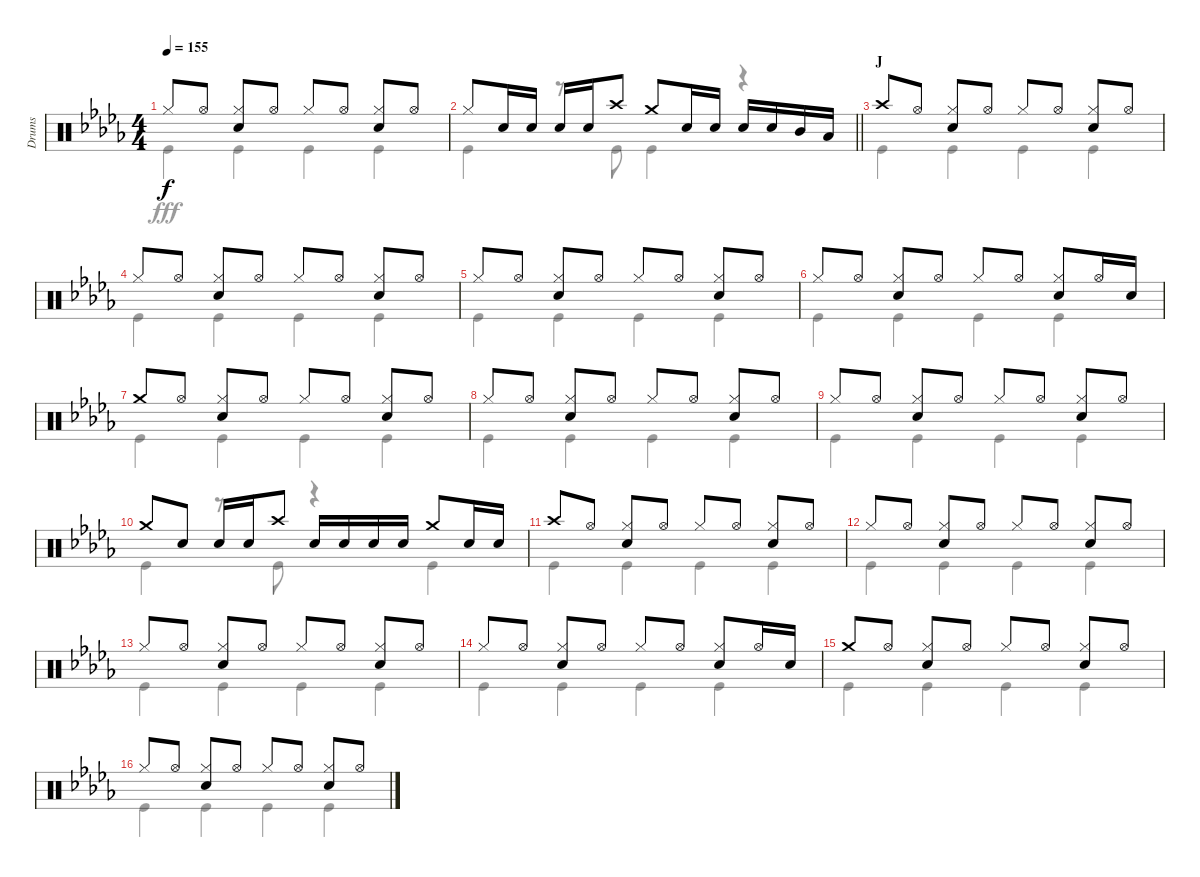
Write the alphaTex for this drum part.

\track ("Drums" "Drums") {instrument percussion}
\staff {score}
\articulation defaults
\voice
\ts (4 4)
\tempo 155
\clef neutral
\ks db "Hi-Hat (closed)".8{dy f} "Hi-Hat (open)".8
("Hi-Hat (closed)" "Snare (hit) 2").8 "Hi-Hat (open)".8 "Hi-Hat (closed)".8 "Hi-Hat (open)".8 ("Hi-Hat (closed)" "Snare (hit) 2").8 "Hi-Hat (open)".8 |
\barLineRight lightlight "Hi-Hat (closed)".8 "Snare (hit) 2".16 "Snare (hit) 2".16 "Snare (hit) 2".16 "Snare (hit) 2".16 "Crash high (hit)".8 "Crash medium (hit)".8 "Snare (hit) 2".16 "Snare (hit) 2".16 "Snare (hit) 2".16 "Snare (hit) 2".16 "Mid Tom (hit)".16 "Low Tom (hit)".16
|
\section ("" "J")
"Crash high (hit)".8 "Hi-Hat (open)".8 ("Hi-Hat (closed)" "Snare (hit) 2").8 "Hi-Hat (open)".8 "Hi-Hat (closed)".8 "Hi-Hat (open)".8 ("Hi-Hat (closed)" "Snare (hit) 2").8 "Hi-Hat (open)".8 |
"Hi-Hat (closed)".8 "Hi-Hat (open)".8 ("Hi-Hat (closed)" "Snare (hit) 2").8 "Hi-Hat (open)".8 "Hi-Hat (closed)".8 "Hi-Hat (open)".8 ("Hi-Hat (closed)" "Snare (hit) 2").8 "Hi-Hat (open)".8 |
"Hi-Hat (closed)".8 "Hi-Hat (open)".8 ("Hi-Hat (closed)" "Snare (hit) 2").8 "Hi-Hat (open)".8 "Hi-Hat (closed)".8 "Hi-Hat (open)".8 ("Hi-Hat (closed)" "Snare (hit) 2").8 "Hi-Hat (open)".8 |
"Hi-Hat (closed)".8 "Hi-Hat (open)".8 ("Hi-Hat (closed)" "Snare (hit) 2").8 "Hi-Hat (open)".8 "Hi-Hat (closed)".8 "Hi-Hat (open)".8 ("Hi-Hat (closed)" "Snare (hit) 2").8 "Hi-Hat (open)".16 "Snare (hit) 2".16 |
"Crash medium (hit)".8 "Hi-Hat (open)".8 ("Hi-Hat (closed)" "Snare (hit) 2").8 "Hi-Hat (open)".8 "Hi-Hat (closed)".8 "Hi-Hat (open)".8 ("Hi-Hat (closed)" "Snare (hit) 2").8 "Hi-Hat (open)".8 |
"Hi-Hat (closed)".8 "Hi-Hat (open)".8 ("Hi-Hat (closed)" "Snare (hit) 2").8 "Hi-Hat (open)".8 "Hi-Hat (closed)".8 "Hi-Hat (open)".8 ("Hi-Hat (closed)" "Snare (hit) 2").8 "Hi-Hat (open)".8 |
"Hi-Hat (closed)".8 "Hi-Hat (open)".8 ("Hi-Hat (closed)" "Snare (hit) 2").8 "Hi-Hat (open)".8 "Hi-Hat (closed)".8 "Hi-Hat (open)".8 ("Hi-Hat (closed)" "Snare (hit) 2").8 "Hi-Hat (open)".8 |
"Crash medium (hit)".8 "Snare (hit) 2".8 "Snare (hit) 2".16 "Snare (hit) 2".16 "Crash high (hit)".8 "Snare (hit) 2".16 "Snare (hit) 2".16 "Snare (hit) 2".16 "Snare (hit) 2".16 "Crash medium (hit)".8 "Snare (hit) 2".16 "Snare (hit) 2".16 |
"Crash high (hit)".8 "Hi-Hat (open)".8 ("Hi-Hat (closed)" "Snare (hit) 2").8 "Hi-Hat (open)".8 "Hi-Hat (closed)".8 "Hi-Hat (open)".8 ("Hi-Hat (closed)" "Snare (hit) 2").8 "Hi-Hat (open)".8 |
"Hi-Hat (closed)".8 "Hi-Hat (open)".8 ("Hi-Hat (closed)" "Snare (hit) 2").8 "Hi-Hat (open)".8 "Hi-Hat (closed)".8 "Hi-Hat (open)".8 ("Hi-Hat (closed)" "Snare (hit) 2").8 "Hi-Hat (open)".8 |
"Hi-Hat (closed)".8 "Hi-Hat (open)".8 ("Hi-Hat (closed)" "Snare (hit) 2").8 "Hi-Hat (open)".8 "Hi-Hat (closed)".8 "Hi-Hat (open)".8 ("Hi-Hat (closed)" "Snare (hit) 2").8 "Hi-Hat (open)".8 |
"Hi-Hat (closed)".8 "Hi-Hat (open)".8 ("Hi-Hat (closed)" "Snare (hit) 2").8 "Hi-Hat (open)".8 "Hi-Hat (closed)".8 "Hi-Hat (open)".8 ("Hi-Hat (closed)" "Snare (hit) 2").8 "Hi-Hat (open)".16 "Snare (hit) 2".16 |
"Crash medium (hit)".8 "Hi-Hat (open)".8 ("Hi-Hat (closed)" "Snare (hit) 2").8 "Hi-Hat (open)".8 "Hi-Hat (closed)".8 "Hi-Hat (open)".8 ("Hi-Hat (closed)" "Snare (hit) 2").8 "Hi-Hat (open)".8 |
"Hi-Hat (closed)".8 "Hi-Hat (open)".8 ("Hi-Hat (closed)" "Snare (hit) 2").8 "Hi-Hat (open)".8 "Hi-Hat (closed)".8 "Hi-Hat (open)".8 ("Hi-Hat (closed)" "Snare (hit) 2").8 "Hi-Hat (open)".8
\voice
\clef neutral
\ottava regular
\simile none
\ks db "Kick (hit)".4{dy fff} "Kick (hit)".4 "Kick (hit)".4 "Kick (hit)".4
|
\barLineRight lightlight "Kick (hit)".4
r.8 "Kick (hit)".8 "Kick (hit)".4 r.4 |
"Kick (hit)".4 "Kick (hit)".4 "Kick (hit)".4 "Kick (hit)".4 |
"Kick (hit)".4 "Kick (hit)".4 "Kick (hit)".4 "Kick (hit)".4 |
"Kick (hit)".4 "Kick (hit)".4 "Kick (hit)".4 "Kick (hit)".4 |
"Kick (hit)".4 "Kick (hit)".4 "Kick (hit)".4 "Kick (hit)".4 |
"Kick (hit)".4 "Kick (hit)".4 "Kick (hit)".4 "Kick (hit)".4 |
"Kick (hit)".4 "Kick (hit)".4 "Kick (hit)".4 "Kick (hit)".4 |
"Kick (hit)".4 "Kick (hit)".4 "Kick (hit)".4 "Kick (hit)".4 |
"Kick (hit)".4 r.8 "Kick (hit)".8 r.4 "Kick (hit)".4 |
"Kick (hit)".4 "Kick (hit)".4 "Kick (hit)".4 "Kick (hit)".4 |
"Kick (hit)".4 "Kick (hit)".4 "Kick (hit)".4 "Kick (hit)".4 |
"Kick (hit)".4 "Kick (hit)".4 "Kick (hit)".4 "Kick (hit)".4 |
"Kick (hit)".4 "Kick (hit)".4 "Kick (hit)".4 "Kick (hit)".4 |
"Kick (hit)".4 "Kick (hit)".4 "Kick (hit)".4 "Kick (hit)".4 |
"Kick (hit)".4 "Kick (hit)".4 "Kick (hit)".4 "Kick (hit)".4
